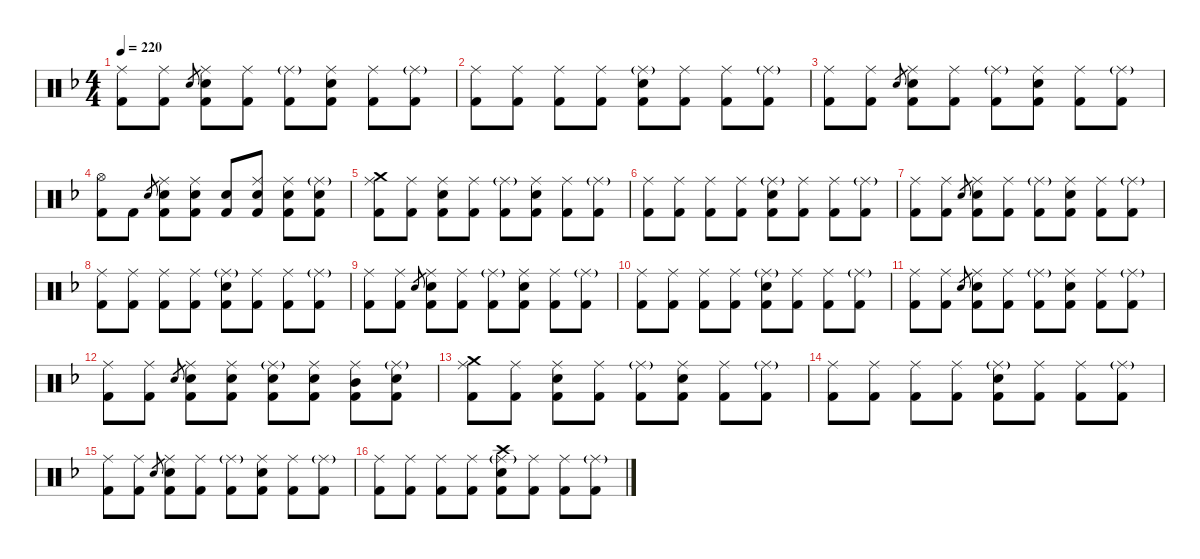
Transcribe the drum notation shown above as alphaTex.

\hideDynamics
\bracketExtendMode nobrackets
\singleTrackTrackNamePolicy hidden
\multiTrackTrackNamePolicy hidden
\firstSystemTrackNameMode fullname
\firstSystemTrackNameOrientation horizontal
\otherSystemsTrackNameOrientation horizontal
\track ("Drumkit" "Drums") {instrument percussion}
\staff {score}
\articulation defaults
\ts (4 4)
\tempo 220
\clef neutral
\ks dminor
("Ride (middle)"{acc forcenatural} "Kick (hit) 2"{acc forcenatural}).8{dy mf beam Down} ("Ride (middle)"{acc forcenatural} "Kick (hit) 2"{acc forcenatural}).8{beam Down} "Snare (hit) 2"{acc forcenatural}.8{gr dy mp beam Up} ("Ride (middle)"{acc forcenatural} "Snare (hit) 2"{acc forcenatural} "Kick (hit) 2"{acc forcenatural}).8{dy mf beam Down} ("Ride (middle)"{acc forcenatural} "Kick (hit) 2"{acc forcenatural}).8{beam Down} ("Ride (middle)"{g acc forcenatural} "Kick (hit) 2"{acc forcenatural}).8{dy f beam Down} ("Ride (middle)"{acc forcenatural} "Snare (hit) 2"{acc forcenatural} "Kick (hit) 2"{acc forcenatural}).8{dy mf beam Down} ("Ride (middle)"{acc forcenatural} "Kick (hit) 2"{acc forcenatural}).8{beam Down} ("Ride (middle)"{g acc forcenatural} "Kick (hit) 2"{acc forcenatural}).8{dy f beam Down} |
("Ride (middle)"{acc forcenatural} "Kick (hit) 2"{acc forcenatural}).8{dy mf beam Down} ("Ride (middle)"{acc forcenatural} "Kick (hit) 2"{acc forcenatural}).8{beam Down} ("Ride (middle)"{acc forcenatural} "Kick (hit) 2"{acc forcenatural}).8{beam Down} ("Ride (middle)"{acc forcenatural} "Kick (hit) 2"{acc forcenatural}).8{beam Down} ("Ride (middle)"{g acc forcenatural} "Snare (hit) 2"{acc forcenatural} "Kick (hit) 2"{acc forcenatural}).8{dy f beam Down} ("Ride (middle)"{acc forcenatural} "Kick (hit) 2"{acc forcenatural}).8{dy mf beam Down} ("Ride (middle)"{acc forcenatural} "Kick (hit) 2"{acc forcenatural}).8{beam Down} ("Ride (middle)"{g acc forcenatural} "Kick (hit) 2"{acc forcenatural}).8{dy f beam Down} |
("Ride (middle)"{acc forcenatural} "Kick (hit) 2"{acc forcenatural}).8{dy mf beam Down} ("Ride (middle)"{acc forcenatural} "Kick (hit) 2"{acc forcenatural}).8{beam Down} "Snare (hit) 2"{acc forcenatural}.8{gr dy mp beam Up} ("Ride (middle)"{acc forcenatural} "Snare (hit) 2"{acc forcenatural} "Kick (hit) 2"{acc forcenatural}).8{dy mf beam Down} ("Ride (middle)"{acc forcenatural} "Kick (hit) 2"{acc forcenatural}).8{beam Down} ("Ride (middle)"{g acc forcenatural} "Kick (hit) 2"{acc forcenatural}).8{dy f beam Down} ("Ride (middle)"{acc forcenatural} "Snare (hit) 2"{acc forcenatural} "Kick (hit) 2"{acc forcenatural}).8{dy mf beam Down} ("Ride (middle)"{acc forcenatural} "Kick (hit) 2"{acc forcenatural}).8{beam Down} ("Ride (middle)"{g acc forcenatural} "Kick (hit) 2"{acc forcenatural}).8{dy f beam Down} |
("Hi-Hat (open)"{acc forcenatural} "Kick (hit) 2"{acc forcenatural}).8{dy mf beam Down} "Kick (hit) 2"{acc forcenatural}.8{dy f beam Down} "Snare (hit) 2"{acc forcenatural}.8{gr dy mp beam Up} ("Ride (middle)"{acc forcenatural} "Snare (hit) 2"{acc forcenatural} "Kick (hit) 2"{acc forcenatural}).8{dy mf beam Down} ("Ride (middle)"{acc forcenatural} "Snare (hit) 2"{acc forcenatural} "Kick (hit) 2"{acc forcenatural}).8{beam Down} ("Snare (hit) 2"{acc forcenatural} "Kick (hit) 2"{acc forcenatural}).8{dy f beam Up} ("Ride (middle)"{acc forcenatural} "Snare (hit) 2"{acc forcenatural} "Kick (hit) 2"{acc forcenatural}).8{dy mf beam Up} ("Ride (middle)"{acc forcenatural} "Snare (hit) 2"{acc forcenatural} "Kick (hit) 2"{acc forcenatural}).8{beam Down} ("Ride (middle)"{g acc forcenatural} "Snare (hit) 2"{acc forcenatural} "Kick (hit) 2"{acc forcenatural}).8{dy f beam Down} |
("Crash medium (hit)"{acc forcenatural} "Ride (middle)"{acc forcenatural} "Kick (hit) 2"{acc forcenatural}).8{beam Down} ("Ride (middle)"{acc forcenatural} "Kick (hit) 2"{acc forcenatural}).8{dy mf beam Down} ("Ride (middle)"{acc forcenatural} "Snare (hit) 2"{acc forcenatural} "Kick (hit) 2"{acc forcenatural}).8{beam Down} ("Ride (middle)"{acc forcenatural} "Kick (hit) 2"{acc forcenatural}).8{beam Down} ("Ride (middle)"{g acc forcenatural} "Kick (hit) 2"{acc forcenatural}).8{dy f beam Down} ("Ride (middle)"{acc forcenatural} "Snare (hit) 2"{acc forcenatural} "Kick (hit) 2"{acc forcenatural}).8{dy mf beam Down} ("Ride (middle)"{acc forcenatural} "Kick (hit) 2"{acc forcenatural}).8{beam Down} ("Ride (middle)"{g acc forcenatural} "Kick (hit) 2"{acc forcenatural}).8{dy f beam Down} |
("Ride (middle)"{acc forcenatural} "Kick (hit) 2"{acc forcenatural}).8{dy mf beam Down} ("Ride (middle)"{acc forcenatural} "Kick (hit) 2"{acc forcenatural}).8{beam Down} ("Ride (middle)"{acc forcenatural} "Kick (hit) 2"{acc forcenatural}).8{beam Down} ("Ride (middle)"{acc forcenatural} "Kick (hit) 2"{acc forcenatural}).8{beam Down} ("Ride (middle)"{g acc forcenatural} "Snare (hit) 2"{acc forcenatural} "Kick (hit) 2"{acc forcenatural}).8{dy f beam Down} ("Ride (middle)"{acc forcenatural} "Kick (hit) 2"{acc forcenatural}).8{dy mf beam Down} ("Ride (middle)"{acc forcenatural} "Kick (hit) 2"{acc forcenatural}).8{beam Down} ("Ride (middle)"{g acc forcenatural} "Kick (hit) 2"{acc forcenatural}).8{dy f beam Down} |
("Ride (middle)"{acc forcenatural} "Kick (hit) 2"{acc forcenatural}).8{dy mf beam Down} ("Ride (middle)"{acc forcenatural} "Kick (hit) 2"{acc forcenatural}).8{beam Down} "Snare (hit) 2"{acc forcenatural}.8{gr dy mp beam Up} ("Ride (middle)"{acc forcenatural} "Snare (hit) 2"{acc forcenatural} "Kick (hit) 2"{acc forcenatural}).8{dy mf beam Down} ("Ride (middle)"{acc forcenatural} "Kick (hit) 2"{acc forcenatural}).8{beam Down} ("Ride (middle)"{g acc forcenatural} "Kick (hit) 2"{acc forcenatural}).8{dy f beam Down} ("Ride (middle)"{acc forcenatural} "Snare (hit) 2"{acc forcenatural} "Kick (hit) 2"{acc forcenatural}).8{dy mf beam Down} ("Ride (middle)"{acc forcenatural} "Kick (hit) 2"{acc forcenatural}).8{beam Down} ("Ride (middle)"{g acc forcenatural} "Kick (hit) 2"{acc forcenatural}).8{dy f beam Down} |
("Ride (middle)"{acc forcenatural} "Kick (hit) 2"{acc forcenatural}).8{dy mf beam Down} ("Ride (middle)"{acc forcenatural} "Kick (hit) 2"{acc forcenatural}).8{beam Down} ("Ride (middle)"{acc forcenatural} "Kick (hit) 2"{acc forcenatural}).8{beam Down} ("Ride (middle)"{acc forcenatural} "Kick (hit) 2"{acc forcenatural}).8{beam Down} ("Ride (middle)"{g acc forcenatural} "Snare (hit) 2"{acc forcenatural} "Kick (hit) 2"{acc forcenatural}).8{dy f beam Down} ("Ride (middle)"{acc forcenatural} "Kick (hit) 2"{acc forcenatural}).8{dy mf beam Down} ("Ride (middle)"{acc forcenatural} "Kick (hit) 2"{acc forcenatural}).8{beam Down} ("Ride (middle)"{g acc forcenatural} "Kick (hit) 2"{acc forcenatural}).8{dy f beam Down} |
("Ride (middle)"{acc forcenatural} "Kick (hit) 2"{acc forcenatural}).8{dy mf beam Down} ("Ride (middle)"{acc forcenatural} "Kick (hit) 2"{acc forcenatural}).8{beam Down} "Snare (hit) 2"{acc forcenatural}.8{gr dy mp beam Up} ("Ride (middle)"{acc forcenatural} "Snare (hit) 2"{acc forcenatural} "Kick (hit) 2"{acc forcenatural}).8{dy mf beam Down} ("Ride (middle)"{acc forcenatural} "Kick (hit) 2"{acc forcenatural}).8{beam Down} ("Ride (middle)"{g acc forcenatural} "Kick (hit) 2"{acc forcenatural}).8{dy f beam Down} ("Ride (middle)"{acc forcenatural} "Snare (hit) 2"{acc forcenatural} "Kick (hit) 2"{acc forcenatural}).8{dy mf beam Down} ("Ride (middle)"{acc forcenatural} "Kick (hit) 2"{acc forcenatural}).8{beam Down} ("Ride (middle)"{g acc forcenatural} "Kick (hit) 2"{acc forcenatural}).8{dy f beam Down} |
("Ride (middle)"{acc forcenatural} "Kick (hit) 2"{acc forcenatural}).8{dy mf beam Down} ("Ride (middle)"{acc forcenatural} "Kick (hit) 2"{acc forcenatural}).8{beam Down} ("Ride (middle)"{acc forcenatural} "Kick (hit) 2"{acc forcenatural}).8{beam Down} ("Ride (middle)"{acc forcenatural} "Kick (hit) 2"{acc forcenatural}).8{beam Down} ("Ride (middle)"{g acc forcenatural} "Snare (hit) 2"{acc forcenatural} "Kick (hit) 2"{acc forcenatural}).8{dy f beam Down} ("Ride (middle)"{acc forcenatural} "Kick (hit) 2"{acc forcenatural}).8{dy mf beam Down} ("Ride (middle)"{acc forcenatural} "Kick (hit) 2"{acc forcenatural}).8{beam Down} ("Ride (middle)"{g acc forcenatural} "Kick (hit) 2"{acc forcenatural}).8{dy f beam Down} |
("Ride (middle)"{acc forcenatural} "Kick (hit) 2"{acc forcenatural}).8{dy mf beam Down} ("Ride (middle)"{acc forcenatural} "Kick (hit) 2"{acc forcenatural}).8{beam Down} "Snare (hit) 2"{acc forcenatural}.8{gr dy mp beam Up} ("Ride (middle)"{acc forcenatural} "Snare (hit) 2"{acc forcenatural} "Kick (hit) 2"{acc forcenatural}).8{dy mf beam Down} ("Ride (middle)"{acc forcenatural} "Kick (hit) 2"{acc forcenatural}).8{beam Down} ("Ride (middle)"{g acc forcenatural} "Kick (hit) 2"{acc forcenatural}).8{dy f beam Down} ("Ride (middle)"{acc forcenatural} "Snare (hit) 2"{acc forcenatural} "Kick (hit) 2"{acc forcenatural}).8{dy mf beam Down} ("Ride (middle)"{acc forcenatural} "Kick (hit) 2"{acc forcenatural}).8{beam Down} ("Ride (middle)"{g acc forcenatural} "Kick (hit) 2"{acc forcenatural}).8{dy f beam Down} |
("Ride (middle)"{acc forcenatural} "Kick (hit) 2"{acc forcenatural}).8{dy mf beam Down} ("Ride (middle)"{acc forcenatural} "Kick (hit) 2"{acc forcenatural}).8{beam Down} "Snare (hit) 2"{acc forcenatural}.8{gr dy mp beam Up} ("Ride (middle)"{acc forcenatural} "Snare (hit) 2"{acc forcenatural} "Kick (hit) 2"{acc forcenatural}).8{dy mf beam Down} ("Ride (middle)"{acc forcenatural} "Snare (hit) 2"{acc forcenatural} "Kick (hit) 2"{acc forcenatural}).8{beam Down} ("Ride (middle)"{g acc forcenatural} "Snare (hit) 2"{acc forcenatural} "Kick (hit) 2"{acc forcenatural}).8{dy f beam Down} ("Ride (middle)"{acc forcenatural} "Snare (hit) 2"{acc forcenatural} "Kick (hit) 2"{acc forcenatural}).8{dy mf beam Down} ("Ride (middle)"{acc forcenatural} "Mid Tom (hit)"{acc forcenatural} "Kick (hit) 2"{acc forcenatural}).8{beam Down} ("Ride (middle)"{g acc forcenatural} "Snare (hit) 2"{acc forcenatural} "Kick (hit) 2"{acc forcenatural}).8{dy f beam Down} |
("Crash medium (hit)"{acc forcenatural} "Ride (middle)"{acc forcenatural} "Kick (hit) 2"{acc forcenatural}).8{beam Down} ("Ride (middle)"{acc forcenatural} "Kick (hit) 2"{acc forcenatural}).8{dy mf beam Down} ("Ride (middle)"{acc forcenatural} "Snare (hit) 2"{acc forcenatural} "Kick (hit) 2"{acc forcenatural}).8{beam Down} ("Ride (middle)"{acc forcenatural} "Kick (hit) 2"{acc forcenatural}).8{beam Down} ("Ride (middle)"{g acc forcenatural} "Kick (hit) 2"{acc forcenatural}).8{dy f beam Down} ("Ride (middle)"{acc forcenatural} "Snare (hit) 2"{acc forcenatural} "Kick (hit) 2"{acc forcenatural}).8{dy mf beam Down} ("Ride (middle)"{acc forcenatural} "Kick (hit) 2"{acc forcenatural}).8{beam Down} ("Ride (middle)"{g acc forcenatural} "Kick (hit) 2"{acc forcenatural}).8{dy f beam Down} |
("Ride (middle)"{acc forcenatural} "Kick (hit) 2"{acc forcenatural}).8{dy mf beam Down} ("Ride (middle)"{acc forcenatural} "Kick (hit) 2"{acc forcenatural}).8{beam Down} ("Ride (middle)"{acc forcenatural} "Kick (hit) 2"{acc forcenatural}).8{beam Down} ("Ride (middle)"{acc forcenatural} "Kick (hit) 2"{acc forcenatural}).8{beam Down} ("Ride (middle)"{g acc forcenatural} "Snare (hit) 2"{acc forcenatural} "Kick (hit) 2"{acc forcenatural}).8{dy f beam Down} ("Ride (middle)"{acc forcenatural} "Kick (hit) 2"{acc forcenatural}).8{dy mf beam Down} ("Ride (middle)"{acc forcenatural} "Kick (hit) 2"{acc forcenatural}).8{beam Down} ("Ride (middle)"{g acc forcenatural} "Kick (hit) 2"{acc forcenatural}).8{dy f beam Down} |
("Ride (middle)"{acc forcenatural} "Kick (hit) 2"{acc forcenatural}).8{dy mf beam Down} ("Ride (middle)"{acc forcenatural} "Kick (hit) 2"{acc forcenatural}).8{beam Down} "Snare (hit) 2"{acc forcenatural}.8{gr dy mp beam Up} ("Ride (middle)"{acc forcenatural} "Snare (hit) 2"{acc forcenatural} "Kick (hit) 2"{acc forcenatural}).8{dy mf beam Down} ("Ride (middle)"{acc forcenatural} "Kick (hit) 2"{acc forcenatural}).8{beam Down} ("Ride (middle)"{g acc forcenatural} "Kick (hit) 2"{acc forcenatural}).8{dy f beam Down} ("Ride (middle)"{acc forcenatural} "Snare (hit) 2"{acc forcenatural} "Kick (hit) 2"{acc forcenatural}).8{dy mf beam Down} ("Ride (middle)"{acc forcenatural} "Kick (hit) 2"{acc forcenatural}).8{beam Down} ("Ride (middle)"{g acc forcenatural} "Kick (hit) 2"{acc forcenatural}).8{dy f beam Down} |
("Ride (middle)"{acc forcenatural} "Kick (hit) 2"{acc forcenatural}).8{dy mf beam Down} ("Ride (middle)"{acc forcenatural} "Kick (hit) 2"{acc forcenatural}).8{beam Down} ("Ride (middle)"{acc forcenatural} "Kick (hit) 2"{acc forcenatural}).8{beam Down} ("Ride (middle)"{acc forcenatural} "Kick (hit) 2"{acc forcenatural}).8{beam Down} ("Crash high (hit)"{acc forcenatural} "Ride (middle)"{g acc forcenatural} "Snare (hit) 2"{acc forcenatural} "Kick (hit) 2"{acc forcenatural}).8{beam Down} ("Ride (middle)"{acc forcenatural} "Kick (hit) 2"{acc forcenatural}).8{beam Down} ("Ride (middle)"{acc forcenatural} "Kick (hit) 2"{acc forcenatural}).8{beam Down} ("Ride (middle)"{g acc forcenatural} "Kick (hit) 2"{acc forcenatural}).8{dy f beam Down}
